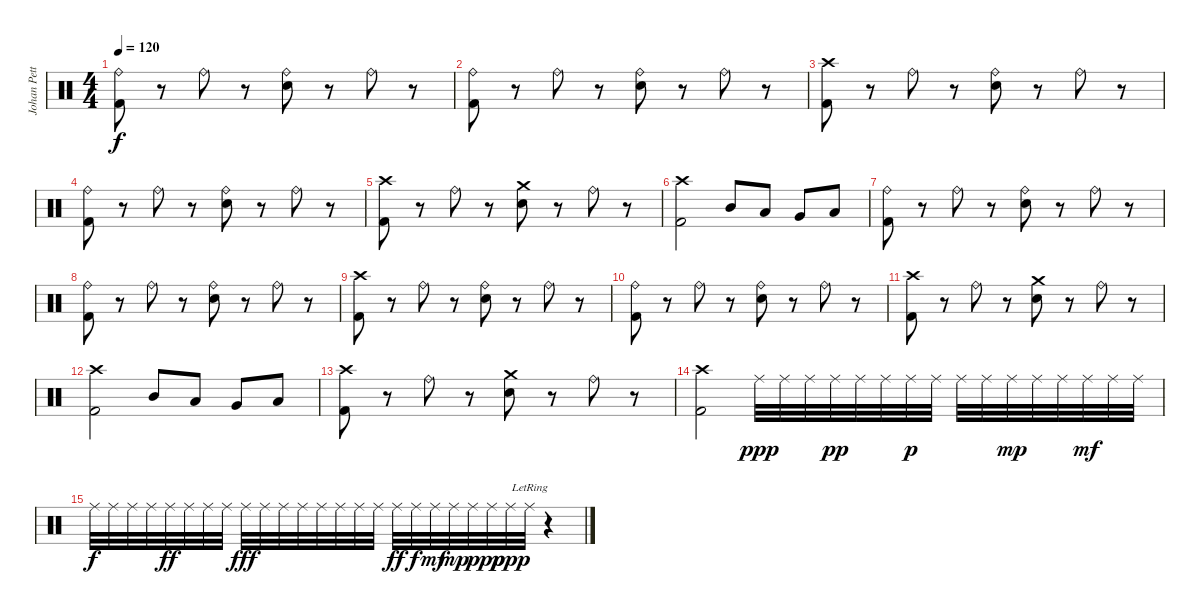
\track ("Johan Petterson" "Johan Pett") {instrument percussion}
\staff {score}
\articulation defaults
\ts (4 4)
\tempo 120
\clef neutral
\ks c
("Ride (bell)" "Kick (hit) 2").8{dy f} r.8 "Ride (bell)".8 r.8 ("Ride (bell)" "Snare (hit) 2").8 r.8 "Ride (bell)".8 r.8 |
("Ride (bell)" "Kick (hit) 2").8 r.8 "Ride (bell)".8 r.8 ("Ride (bell)" "Snare (hit) 2").8 r.8 "Ride (bell)".8 r.8 |
("Crash high (hit)" "Kick (hit) 2").8 r.8 "Ride (bell)".8 r.8 ("Ride (bell)" "Snare (hit) 2").8 r.8 "Ride (bell)".8 r.8 |
("Ride (bell)" "Kick (hit) 2").8 r.8 "Ride (bell)".8 r.8 ("Ride (bell)" "Snare (hit) 2").8 r.8 "Ride (bell)".8 r.8 |
("Crash high (hit)" "Kick (hit) 2").8 r.8 "Ride (bell)".8 r.8 ("Crash medium (hit)" "Snare (hit) 2").8 r.8 "Ride (bell)".8 r.8 |
("Crash high (hit)" "Kick (hit) 2").2 "Mid Tom (hit)".8 "Low Tom (hit)".8 "Very Low Tom (hit)".8 "Low Floor Tom (hit)".8 |
("Ride (bell)" "Kick (hit) 2").8 r.8 "Ride (bell)".8 r.8 ("Ride (bell)" "Snare (hit) 2").8 r.8 "Ride (bell)".8 r.8 |
("Ride (bell)" "Kick (hit) 2").8 r.8 "Ride (bell)".8 r.8 ("Ride (bell)" "Snare (hit) 2").8 r.8 "Ride (bell)".8 r.8 |
("Crash high (hit)" "Kick (hit) 2").8 r.8 "Ride (bell)".8 r.8 ("Ride (bell)" "Snare (hit) 2").8 r.8 "Ride (bell)".8 r.8 |
("Ride (bell)" "Kick (hit) 2").8 r.8 "Ride (bell)".8 r.8 ("Ride (bell)" "Snare (hit) 2").8 r.8 "Ride (bell)".8 r.8 |
("Crash high (hit)" "Kick (hit) 2").8 r.8 "Ride (bell)".8 r.8 ("Crash medium (hit)" "Snare (hit) 2").8 r.8 "Ride (bell)".8 r.8 |
("Crash high (hit)" "Kick (hit) 2").2 "Mid Tom (hit)".8 "Low Tom (hit)".8 "Very Low Tom (hit)".8 "Low Floor Tom (hit)".8 |
("Crash high (hit)" "Kick (hit) 2").8 r.8 "Ride (bell)".8 r.8 ("Crash medium (hit)" "Snare (hit) 2").8 r.8 "Ride (bell)".8 r.8 |
("Crash high (hit)" "Kick (hit) 2").2 "Ride (middle)".32{dy ppp} "Ride (middle)".32 "Ride (middle)".32 "Ride (middle)".32{dy pp} "Ride (middle)".32 "Ride (middle)".32 "Ride (middle)".32{dy p} "Ride (middle)".32 "Ride (middle)".32 "Ride (middle)".32 "Ride (middle)".32{dy mp} "Ride (middle)".32 "Ride (middle)".32 "Ride (middle)".32{dy mf} "Ride (middle)".32 "Ride (middle)".32 |
"Ride (middle)".32{dy f} "Ride (middle)".32 "Ride (middle)".32 "Ride (middle)".32 "Ride (middle)".32{dy ff} "Ride (middle)".32 "Ride (middle)".32 "Ride (middle)".32 "Ride (middle)".32{dy fff} "Ride (middle)".32 "Ride (middle)".32 "Ride (middle)".32 "Ride (middle)".32 "Ride (middle)".32 "Ride (middle)".32 "Ride (middle)".32 "Ride (middle)".32{dy ff} "Ride (middle)".32{dy f} "Ride (middle)".32{dy mf} "Ride (middle)".32{dy mp} "Ride (middle)".32{dy p} "Ride (middle)".32{dy pp} "Ride (middle)".32{dy ppp} "Ride (middle)"{lr}.32 r.4
